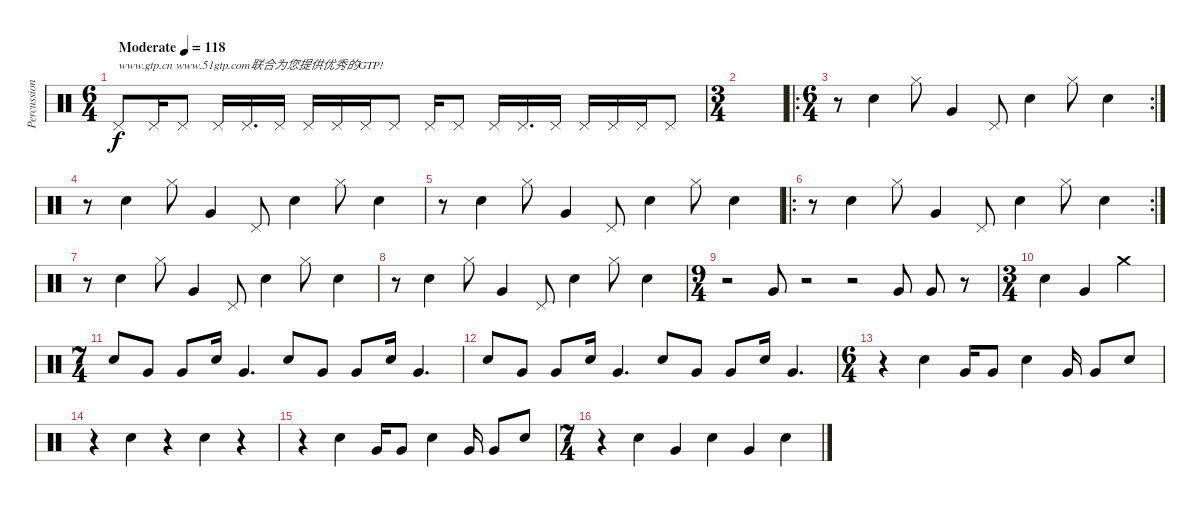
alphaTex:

\track ("Percussion" "Percussion") {instrument percussion}
\staff {score}
\articulation defaults
\ts (6 4)
\tempo (118 "Moderate")
\clef neutral
\ks c "Pedal Hi-Hat (hit)".8{txt "www.gtp.cn www.51gtp.com联合为您提供优秀的GTP!" dy f} "Pedal Hi-Hat (hit)".16 "Pedal Hi-Hat (hit)".8 "Pedal Hi-Hat (hit)".16 "Pedal Hi-Hat (hit)".16{d} "Pedal Hi-Hat (hit)".16 "Pedal Hi-Hat (hit)".16 "Pedal Hi-Hat (hit)".16 "Pedal Hi-Hat (hit)".16 "Pedal Hi-Hat (hit)".8 "Pedal Hi-Hat (hit)".16 "Pedal Hi-Hat (hit)".8 "Pedal Hi-Hat (hit)".16 "Pedal Hi-Hat (hit)".16{d} "Pedal Hi-Hat (hit)".16 "Pedal Hi-Hat (hit)".16 "Pedal Hi-Hat (hit)".16 "Pedal Hi-Hat (hit)".16 "Pedal Hi-Hat (hit)".8
|
\ts (3 4)
|
\ro
\rc 2
\ts (6 4)
r.8 "Electric Snare (hit)".4 "Hi-Hat (closed)".8 "Very Low Tom (hit)".4 "Pedal Hi-Hat (hit)".8 "Electric Snare (hit)".4 "Hi-Hat (closed)".8 "Electric Snare (hit)".4 |
r.8 "Electric Snare (hit)".4 "Hi-Hat (closed)".8 "Very Low Tom (hit)".4 "Pedal Hi-Hat (hit)".8 "Electric Snare (hit)".4 "Hi-Hat (closed)".8 "Electric Snare (hit)".4 |
r.8 "Electric Snare (hit)".4 "Hi-Hat (closed)".8 "Very Low Tom (hit)".4 "Pedal Hi-Hat (hit)".8 "Electric Snare (hit)".4 "Hi-Hat (closed)".8 "Electric Snare (hit)".4 |
\ro
\rc 2
r.8 "Electric Snare (hit)".4 "Hi-Hat (closed)".8 "Very Low Tom (hit)".4 "Pedal Hi-Hat (hit)".8 "Electric Snare (hit)".4 "Hi-Hat (closed)".8 "Electric Snare (hit)".4 |
r.8 "Electric Snare (hit)".4 "Hi-Hat (closed)".8 "Very Low Tom (hit)".4 "Pedal Hi-Hat (hit)".8 "Electric Snare (hit)".4 "Hi-Hat (closed)".8 "Electric Snare (hit)".4 |
r.8 "Electric Snare (hit)".4 "Hi-Hat (closed)".8 "Very Low Tom (hit)".4 "Pedal Hi-Hat (hit)".8 "Electric Snare (hit)".4 "Hi-Hat (closed)".8 "Electric Snare (hit)".4 |
\ts (9 4)
r.2 "Very Low Tom (hit)".8 r.2 r.2 "Very Low Tom (hit)".8 "Very Low Tom (hit)".8 r.8 |
\ts (3 4)
"Electric Snare (hit)".4 "Very Low Tom (hit)".4 "Crash medium (hit)".4 |
\ts (7 4)
"Electric Snare (hit)".8 "Very Low Tom (hit)".8 "Very Low Tom (hit)".8 "Electric Snare (hit)".16 "Very Low Tom (hit)".4{d} "Electric Snare (hit)".8 "Very Low Tom (hit)".8 "Very Low Tom (hit)".8 "Electric Snare (hit)".16 "Very Low Tom (hit)".4{d} |
"Electric Snare (hit)".8 "Very Low Tom (hit)".8 "Very Low Tom (hit)".8 "Electric Snare (hit)".16 "Very Low Tom (hit)".4{d} "Electric Snare (hit)".8 "Very Low Tom (hit)".8 "Very Low Tom (hit)".8 "Electric Snare (hit)".16 "Very Low Tom (hit)".4{d} |
\ts (6 4)
r.4 "Electric Snare (hit)".4 "Very Low Tom (hit)".16 "Very Low Tom (hit)".8 "Electric Snare (hit)".4 "Very Low Tom (hit)".16 "Very Low Tom (hit)".8 "Electric Snare (hit)".8 |
r.4 "Electric Snare (hit)".4 r.4 "Electric Snare (hit)".4 r.4 |
r.4 "Electric Snare (hit)".4 "Very Low Tom (hit)".16 "Very Low Tom (hit)".8 "Electric Snare (hit)".4 "Very Low Tom (hit)".16 "Very Low Tom (hit)".8 "Electric Snare (hit)".8 |
\ts (7 4)
r.4 "Electric Snare (hit)".4 "Very Low Tom (hit)".4 "Electric Snare (hit)".4 "Very Low Tom (hit)".4 "Electric Snare (hit)".4
